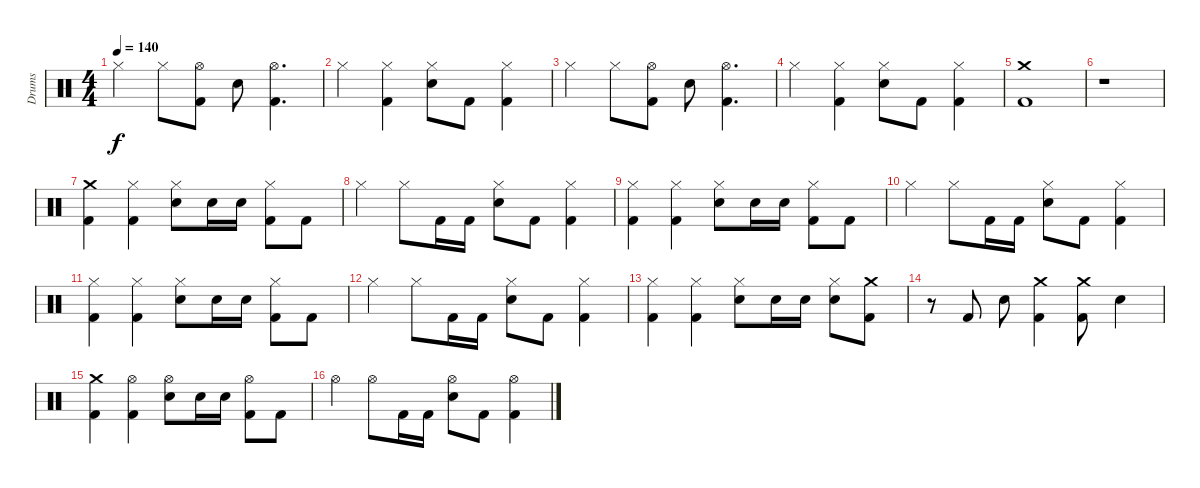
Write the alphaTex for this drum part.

\track ("Drums" "Drums") {instrument percussion}
\staff {score}
\articulation defaults
\ts (4 4)
\tempo 140
\clef neutral
\ks c "Hi-Hat (closed)".4{dy f} "Hi-Hat (closed)".8
("Hi-Hat (open)" "Kick (hit) 2").8 "Electric Snare (hit)".8 ("Hi-Hat (open)" "Kick (hit) 2").4{d} |
"Hi-Hat (closed)".4 ("Hi-Hat (closed)" "Kick (hit) 2").4 ("Hi-Hat (closed)" "Electric Snare (hit)").8 "Kick (hit) 2".8 ("Hi-Hat (closed)" "Kick (hit) 2").4 |
"Hi-Hat (closed)".4 "Hi-Hat (closed)".8 ("Hi-Hat (open)" "Kick (hit) 2").8 "Electric Snare (hit)".8 ("Hi-Hat (open)" "Kick (hit) 2").4{d} |
"Hi-Hat (closed)".4 ("Hi-Hat (closed)" "Kick (hit) 2").4 ("Hi-Hat (closed)" "Electric Snare (hit)").8 "Kick (hit) 2".8 ("Hi-Hat (closed)" "Kick (hit) 2").4 |
("Crash medium (hit)" "Kick (hit) 2").1 |
r.1 |
("Crash medium (hit)" "Kick (hit) 2").4 ("Hi-Hat (closed)" "Kick (hit) 2").4 ("Hi-Hat (closed)" "Electric Snare (hit)").8 "Electric Snare (hit)".16 "Electric Snare (hit)".16 ("Hi-Hat (closed)" "Kick (hit) 2").8 "Kick (hit) 2".8 |
"Hi-Hat (closed)".4 "Hi-Hat (closed)".8 "Kick (hit) 2".16 "Kick (hit) 2".16 ("Hi-Hat (closed)" "Electric Snare (hit)").8 "Kick (hit) 2".8 ("Hi-Hat (closed)" "Kick (hit) 2").4 |
("Hi-Hat (closed)" "Kick (hit) 2").4 ("Hi-Hat (closed)" "Kick (hit) 2").4 ("Hi-Hat (closed)" "Electric Snare (hit)").8 "Electric Snare (hit)".16 "Electric Snare (hit)".16 ("Hi-Hat (closed)" "Kick (hit) 2").8 "Kick (hit) 2".8 |
"Hi-Hat (closed)".4 "Hi-Hat (closed)".8 "Kick (hit) 2".16 "Kick (hit) 2".16 ("Hi-Hat (closed)" "Electric Snare (hit)").8 "Kick (hit) 2".8 ("Hi-Hat (closed)" "Kick (hit) 2").4 |
("Hi-Hat (closed)" "Kick (hit) 2").4 ("Hi-Hat (closed)" "Kick (hit) 2").4 ("Hi-Hat (closed)" "Electric Snare (hit)").8 "Electric Snare (hit)".16 "Electric Snare (hit)".16 ("Hi-Hat (closed)" "Kick (hit) 2").8 "Kick (hit) 2".8 |
"Hi-Hat (closed)".4 "Hi-Hat (closed)".8 "Kick (hit) 2".16 "Kick (hit) 2".16 ("Hi-Hat (closed)" "Electric Snare (hit)").8 "Kick (hit) 2".8 ("Hi-Hat (closed)" "Kick (hit) 2").4 |
("Hi-Hat (closed)" "Kick (hit) 2").4 ("Hi-Hat (closed)" "Kick (hit) 2").4 ("Hi-Hat (closed)" "Electric Snare (hit)").8 "Electric Snare (hit)".16 "Electric Snare (hit)".16 ("Hi-Hat (closed)" "Electric Snare (hit)").8 ("Crash medium (hit)" "Kick (hit) 2").8 |
r.8 "Kick (hit) 2".8 "Electric Snare (hit)".8 ("Crash medium (hit)" "Kick (hit) 2").4 ("Crash medium (hit)" "Kick (hit) 2").8 "Electric Snare (hit)".4 |
("Crash medium (hit)" "Kick (hit) 2").4 ("Hi-Hat (open)" "Kick (hit) 2").4 ("Hi-Hat (open)" "Electric Snare (hit)").8 "Electric Snare (hit)".16 "Electric Snare (hit)".16 ("Hi-Hat (open)" "Kick (hit) 2").8 "Kick (hit) 2".8 |
"Hi-Hat (open)".4 "Hi-Hat (open)".8 "Kick (hit) 2".16 "Kick (hit) 2".16 ("Hi-Hat (open)" "Electric Snare (hit)").8 "Kick (hit) 2".8 ("Hi-Hat (open)" "Kick (hit) 2").4
